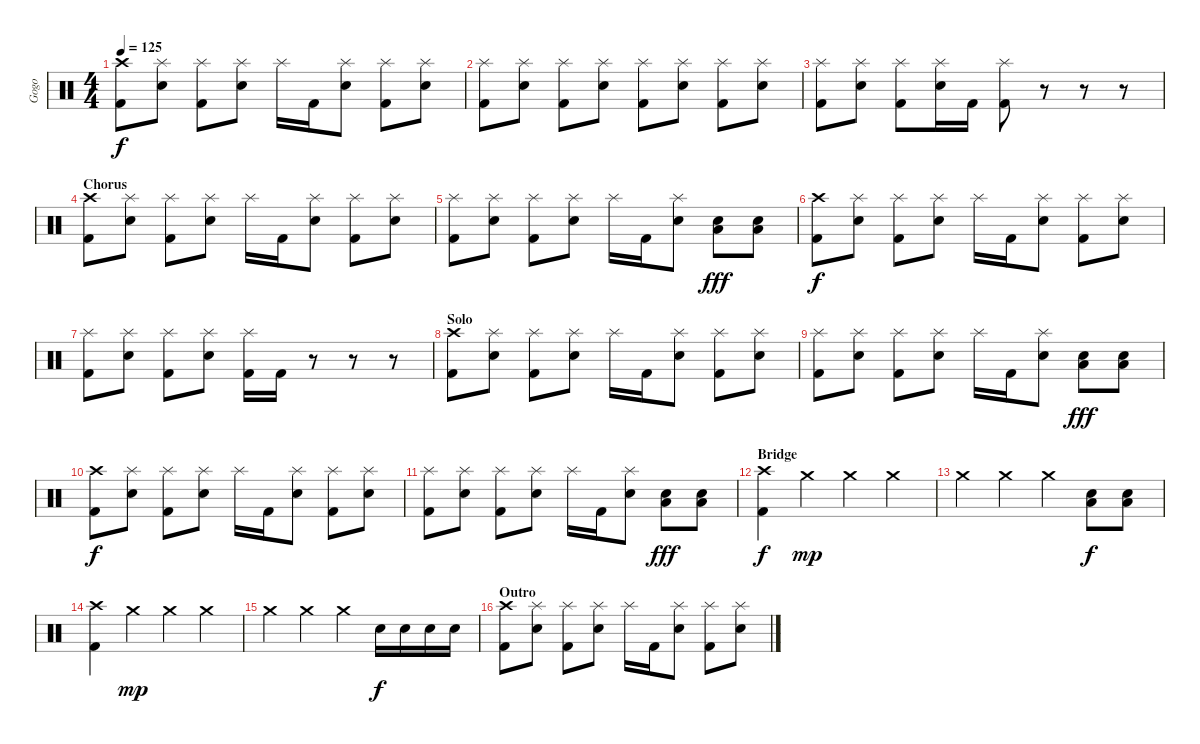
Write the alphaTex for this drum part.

\track ("Gogo" "Gogo") {instrument percussion}
\staff {score}
\articulation defaults
\ts (4 4)
\tempo 125
\clef neutral
\ks c
("Crash high (hit)" "Kick (hit) 2").8{dy f} ("Splash (hit)" "Electric Snare (hit)").8 ("Splash (hit)" "Kick (hit) 2").8 ("Splash (hit)" "Electric Snare (hit)").8 "Splash (hit)".16 "Kick (hit) 2".16 ("Splash (hit)" "Electric Snare (hit)").8 ("Splash (hit)" "Kick (hit) 2").8 ("Splash (hit)" "Electric Snare (hit)").8 |
("Splash (hit)" "Kick (hit) 2").8 ("Splash (hit)" "Electric Snare (hit)").8 ("Splash (hit)" "Kick (hit) 2").8 ("Splash (hit)" "Electric Snare (hit)").8 ("Splash (hit)" "Kick (hit) 2").8 ("Splash (hit)" "Electric Snare (hit)").8 ("Splash (hit)" "Kick (hit) 2").8 ("Splash (hit)" "Electric Snare (hit)").8 |
("Splash (hit)" "Kick (hit) 2").8 ("Splash (hit)" "Electric Snare (hit)").8 ("Splash (hit)" "Kick (hit) 2").8 ("Splash (hit)" "Electric Snare (hit)").16 "Kick (hit) 2".16 ("Splash (hit)" "Kick (hit) 2").8 r.8 r.8 r.8 |
\section ("" "Chorus")
("Crash high (hit)" "Kick (hit) 2").8 ("Splash (hit)" "Electric Snare (hit)").8 ("Splash (hit)" "Kick (hit) 2").8 ("Splash (hit)" "Electric Snare (hit)").8 "Splash (hit)".16 "Kick (hit) 2".16 ("Splash (hit)" "Electric Snare (hit)").8 ("Splash (hit)" "Kick (hit) 2").8 ("Splash (hit)" "Electric Snare (hit)").8 |
("Splash (hit)" "Kick (hit) 2").8 ("Splash (hit)" "Electric Snare (hit)").8 ("Splash (hit)" "Kick (hit) 2").8 ("Splash (hit)" "Electric Snare (hit)").8 "Splash (hit)".16 "Kick (hit) 2".16 ("Splash (hit)" "Electric Snare (hit)").8 ("Electric Snare (hit)" "Low Floor Tom (hit)").8{dy fff} ("Electric Snare (hit)" "Low Floor Tom (hit)").8 |
("Crash high (hit)" "Kick (hit) 2").8{dy f} ("Splash (hit)" "Electric Snare (hit)").8 ("Splash (hit)" "Kick (hit) 2").8 ("Splash (hit)" "Electric Snare (hit)").8 "Splash (hit)".16 "Kick (hit) 2".16 ("Splash (hit)" "Electric Snare (hit)").8 ("Splash (hit)" "Kick (hit) 2").8 ("Splash (hit)" "Electric Snare (hit)").8 |
("Splash (hit)" "Kick (hit) 2").8 ("Splash (hit)" "Electric Snare (hit)").8 ("Splash (hit)" "Kick (hit) 2").8 ("Splash (hit)" "Electric Snare (hit)").8 ("Splash (hit)" "Kick (hit) 2").16 "Kick (hit) 2".16 r.8 r.8 r.8 |
\section ("" "Solo")
("Crash high (hit)" "Kick (hit) 2").8 ("Splash (hit)" "Electric Snare (hit)").8 ("Splash (hit)" "Kick (hit) 2").8 ("Splash (hit)" "Electric Snare (hit)").8 "Splash (hit)".16 "Kick (hit) 2".16 ("Splash (hit)" "Electric Snare (hit)").8 ("Splash (hit)" "Kick (hit) 2").8 ("Splash (hit)" "Electric Snare (hit)").8 |
("Splash (hit)" "Kick (hit) 2").8 ("Splash (hit)" "Electric Snare (hit)").8 ("Splash (hit)" "Kick (hit) 2").8 ("Splash (hit)" "Electric Snare (hit)").8 "Splash (hit)".16 "Kick (hit) 2".16 ("Splash (hit)" "Electric Snare (hit)").8 ("Electric Snare (hit)" "Low Floor Tom (hit)").8{dy fff} ("Electric Snare (hit)" "Low Floor Tom (hit)").8 |
("Crash high (hit)" "Kick (hit) 2").8{dy f} ("Splash (hit)" "Electric Snare (hit)").8 ("Splash (hit)" "Kick (hit) 2").8 ("Splash (hit)" "Electric Snare (hit)").8 "Splash (hit)".16 "Kick (hit) 2".16 ("Splash (hit)" "Electric Snare (hit)").8 ("Splash (hit)" "Kick (hit) 2").8 ("Splash (hit)" "Electric Snare (hit)").8 |
("Splash (hit)" "Kick (hit) 2").8 ("Splash (hit)" "Electric Snare (hit)").8 ("Splash (hit)" "Kick (hit) 2").8 ("Splash (hit)" "Electric Snare (hit)").8 "Splash (hit)".16 "Kick (hit) 2".16 ("Splash (hit)" "Electric Snare (hit)").8 ("Electric Snare (hit)" "Low Floor Tom (hit)").8{dy fff} ("Electric Snare (hit)" "Low Floor Tom (hit)").8 |
\section ("" "Bridge")
("Crash high (hit)" "Kick (hit) 2").4{dy f} "Crash medium (hit)".4{dy mp} "Crash medium (hit)".4 "Crash medium (hit)".4 |
"Crash medium (hit)".4 "Crash medium (hit)".4 "Crash medium (hit)".4 ("Electric Snare (hit)" "Low Floor Tom (hit)").8{dy f} ("Electric Snare (hit)" "Low Floor Tom (hit)").8 |
("Crash high (hit)" "Kick (hit) 2").4 "Crash medium (hit)".4{dy mp} "Crash medium (hit)".4 "Crash medium (hit)".4 |
"Crash medium (hit)".4 "Crash medium (hit)".4 "Crash medium (hit)".4 "Electric Snare (hit)".16{dy f} "Electric Snare (hit)".16 "Electric Snare (hit)".16 "Electric Snare (hit)".16 |
\section ("" "Outro")
("Crash high (hit)" "Kick (hit) 2").8 ("Splash (hit)" "Electric Snare (hit)").8 ("Splash (hit)" "Kick (hit) 2").8 ("Splash (hit)" "Electric Snare (hit)").8 "Splash (hit)".16 "Kick (hit) 2".16 ("Splash (hit)" "Electric Snare (hit)").8 ("Splash (hit)" "Kick (hit) 2").8 ("Splash (hit)" "Electric Snare (hit)").8
